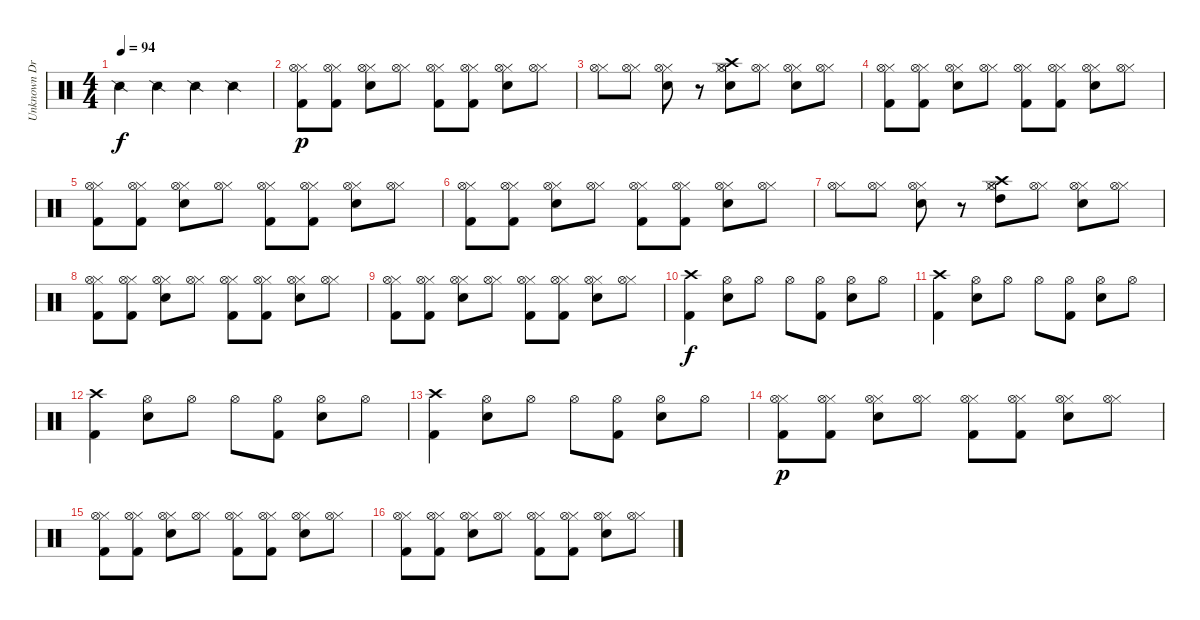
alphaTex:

\track ("Unknown Drum Player" "Unknown Dr") {instrument percussion}
\staff {score}
\articulation defaults
\ts (4 4)
\tempo 94
\clef neutral
\ks c "Snare (side stick) 2".4{dy f} "Snare (side stick) 2".4 "Snare (side stick) 2".4 "Snare (side stick) 2".4
|
("Hi-Hat (closed)" "Hi-Hat (open)" "Kick (hit) 2").8{dy p} ("Hi-Hat (closed)" "Hi-Hat (open)" "Kick (hit) 2").8 ("Hi-Hat (closed)" "Hi-Hat (open)" "Electric Snare (hit)").8 ("Hi-Hat (closed)" "Hi-Hat (open)").8 ("Hi-Hat (closed)" "Hi-Hat (open)" "Kick (hit) 2").8 ("Hi-Hat (closed)" "Hi-Hat (open)" "Kick (hit) 2").8 ("Hi-Hat (closed)" "Hi-Hat (open)" "Electric Snare (hit)").8 ("Hi-Hat (closed)" "Hi-Hat (open)").8 |
("Hi-Hat (closed)" "Hi-Hat (open)").8 ("Hi-Hat (closed)" "Hi-Hat (open)").8 ("Electric Snare (hit)" "Hi-Hat (closed)" "Hi-Hat (open)").8 r.8 ("Crash high (hit)" "Electric Snare (hit)" "Hi-Hat (closed)" "Hi-Hat (open)").8 ("Hi-Hat (closed)" "Hi-Hat (open)").8 ("Electric Snare (hit)" "Hi-Hat (closed)" "Hi-Hat (open)").8 ("Hi-Hat (closed)" "Hi-Hat (open)").8 |
("Hi-Hat (closed)" "Hi-Hat (open)" "Kick (hit) 2").8 ("Hi-Hat (closed)" "Hi-Hat (open)" "Kick (hit) 2").8 ("Hi-Hat (closed)" "Hi-Hat (open)" "Electric Snare (hit)").8 ("Hi-Hat (closed)" "Hi-Hat (open)").8 ("Hi-Hat (closed)" "Hi-Hat (open)" "Kick (hit) 2").8 ("Hi-Hat (closed)" "Hi-Hat (open)" "Kick (hit) 2").8 ("Hi-Hat (closed)" "Hi-Hat (open)" "Electric Snare (hit)").8 ("Hi-Hat (closed)" "Hi-Hat (open)").8 |
("Hi-Hat (closed)" "Hi-Hat (open)" "Kick (hit) 2").8 ("Hi-Hat (closed)" "Hi-Hat (open)" "Kick (hit) 2").8 ("Hi-Hat (closed)" "Hi-Hat (open)" "Electric Snare (hit)").8 ("Hi-Hat (closed)" "Hi-Hat (open)").8 ("Hi-Hat (closed)" "Hi-Hat (open)" "Kick (hit) 2").8 ("Hi-Hat (closed)" "Hi-Hat (open)" "Kick (hit) 2").8 ("Hi-Hat (closed)" "Hi-Hat (open)" "Electric Snare (hit)").8 ("Hi-Hat (closed)" "Hi-Hat (open)").8 |
("Hi-Hat (closed)" "Hi-Hat (open)" "Kick (hit) 2").8 ("Hi-Hat (closed)" "Hi-Hat (open)" "Kick (hit) 2").8 ("Hi-Hat (closed)" "Hi-Hat (open)" "Electric Snare (hit)").8 ("Hi-Hat (closed)" "Hi-Hat (open)").8 ("Hi-Hat (closed)" "Hi-Hat (open)" "Kick (hit) 2").8 ("Hi-Hat (closed)" "Hi-Hat (open)" "Kick (hit) 2").8 ("Hi-Hat (closed)" "Hi-Hat (open)" "Electric Snare (hit)").8 ("Hi-Hat (closed)" "Hi-Hat (open)").8 |
("Hi-Hat (closed)" "Hi-Hat (open)").8 ("Hi-Hat (closed)" "Hi-Hat (open)").8 ("Snare (hit) 2" "Hi-Hat (closed)" "Hi-Hat (open)").8 r.8 ("Crash high (hit)" "High Tom (hit)" "Hi-Hat (closed)" "Hi-Hat (open)").8 ("Hi-Hat (closed)" "Hi-Hat (open)").8 ("Snare (hit) 2" "Hi-Hat (closed)" "Hi-Hat (open)").8 ("Hi-Hat (closed)" "Hi-Hat (open)").8 |
("Hi-Hat (closed)" "Hi-Hat (open)" "Kick (hit) 2").8 ("Hi-Hat (closed)" "Hi-Hat (open)" "Kick (hit) 2").8 ("Hi-Hat (closed)" "Hi-Hat (open)" "Electric Snare (hit)").8 ("Hi-Hat (closed)" "Hi-Hat (open)").8 ("Hi-Hat (closed)" "Hi-Hat (open)" "Kick (hit) 2").8 ("Hi-Hat (closed)" "Hi-Hat (open)" "Kick (hit) 2").8 ("Hi-Hat (closed)" "Hi-Hat (open)" "Electric Snare (hit)").8 ("Hi-Hat (closed)" "Hi-Hat (open)").8 |
("Hi-Hat (closed)" "Hi-Hat (open)" "Kick (hit) 2").8 ("Hi-Hat (closed)" "Hi-Hat (open)" "Kick (hit) 2").8 ("Hi-Hat (closed)" "Hi-Hat (open)" "Electric Snare (hit)").8 ("Hi-Hat (closed)" "Hi-Hat (open)").8 ("Hi-Hat (closed)" "Hi-Hat (open)" "Kick (hit) 2").8 ("Hi-Hat (closed)" "Hi-Hat (open)" "Kick (hit) 2").8 ("Hi-Hat (closed)" "Hi-Hat (open)" "Electric Snare (hit)").8 ("Hi-Hat (closed)" "Hi-Hat (open)").8 |
("Kick (hit) 2" "Crash high (hit)").4{dy f} ("Snare (hit) 2" "Hi-Hat (open)").8 "Hi-Hat (open)".8 "Hi-Hat (open)".8 ("Kick (hit) 2" "Hi-Hat (open)").8 ("Snare (hit) 2" "Hi-Hat (open)").8 "Hi-Hat (open)".8 |
("Kick (hit) 2" "Crash high (hit)").4 ("Snare (hit) 2" "Hi-Hat (open)").8 "Hi-Hat (open)".8 "Hi-Hat (open)".8 ("Kick (hit) 2" "Hi-Hat (open)").8 ("Snare (hit) 2" "Hi-Hat (open)").8 "Hi-Hat (open)".8 |
("Kick (hit) 2" "Crash high (hit)").4 ("Snare (hit) 2" "Hi-Hat (open)").8 "Hi-Hat (open)".8 "Hi-Hat (open)".8 ("Kick (hit) 2" "Hi-Hat (open)").8 ("Snare (hit) 2" "Hi-Hat (open)").8 "Hi-Hat (open)".8 |
("Kick (hit) 2" "Crash high (hit)").4 ("Snare (hit) 2" "Hi-Hat (open)").8 "Hi-Hat (open)".8 "Hi-Hat (open)".8 ("Kick (hit) 2" "Hi-Hat (open)").8 ("Snare (hit) 2" "Hi-Hat (open)").8 "Hi-Hat (open)".8 |
("Hi-Hat (closed)" "Hi-Hat (open)" "Kick (hit) 2").8{dy p} ("Hi-Hat (closed)" "Hi-Hat (open)" "Kick (hit) 2").8 ("Hi-Hat (closed)" "Hi-Hat (open)" "Electric Snare (hit)").8 ("Hi-Hat (closed)" "Hi-Hat (open)").8 ("Hi-Hat (closed)" "Hi-Hat (open)" "Kick (hit) 2").8 ("Hi-Hat (closed)" "Hi-Hat (open)" "Kick (hit) 2").8 ("Hi-Hat (closed)" "Hi-Hat (open)" "Electric Snare (hit)").8 ("Hi-Hat (closed)" "Hi-Hat (open)").8 |
("Hi-Hat (closed)" "Hi-Hat (open)" "Kick (hit) 2").8 ("Hi-Hat (closed)" "Hi-Hat (open)" "Kick (hit) 2").8 ("Hi-Hat (closed)" "Hi-Hat (open)" "Electric Snare (hit)").8 ("Hi-Hat (closed)" "Hi-Hat (open)").8 ("Hi-Hat (closed)" "Hi-Hat (open)" "Kick (hit) 2").8 ("Hi-Hat (closed)" "Hi-Hat (open)" "Kick (hit) 2").8 ("Hi-Hat (closed)" "Hi-Hat (open)" "Electric Snare (hit)").8 ("Hi-Hat (closed)" "Hi-Hat (open)").8 |
("Hi-Hat (closed)" "Hi-Hat (open)" "Kick (hit) 2").8 ("Hi-Hat (closed)" "Hi-Hat (open)" "Kick (hit) 2").8 ("Hi-Hat (closed)" "Hi-Hat (open)" "Electric Snare (hit)").8 ("Hi-Hat (closed)" "Hi-Hat (open)").8 ("Hi-Hat (closed)" "Hi-Hat (open)" "Kick (hit) 2").8 ("Hi-Hat (closed)" "Hi-Hat (open)" "Kick (hit) 2").8 ("Hi-Hat (closed)" "Hi-Hat (open)" "Electric Snare (hit)").8 ("Hi-Hat (closed)" "Hi-Hat (open)").8
